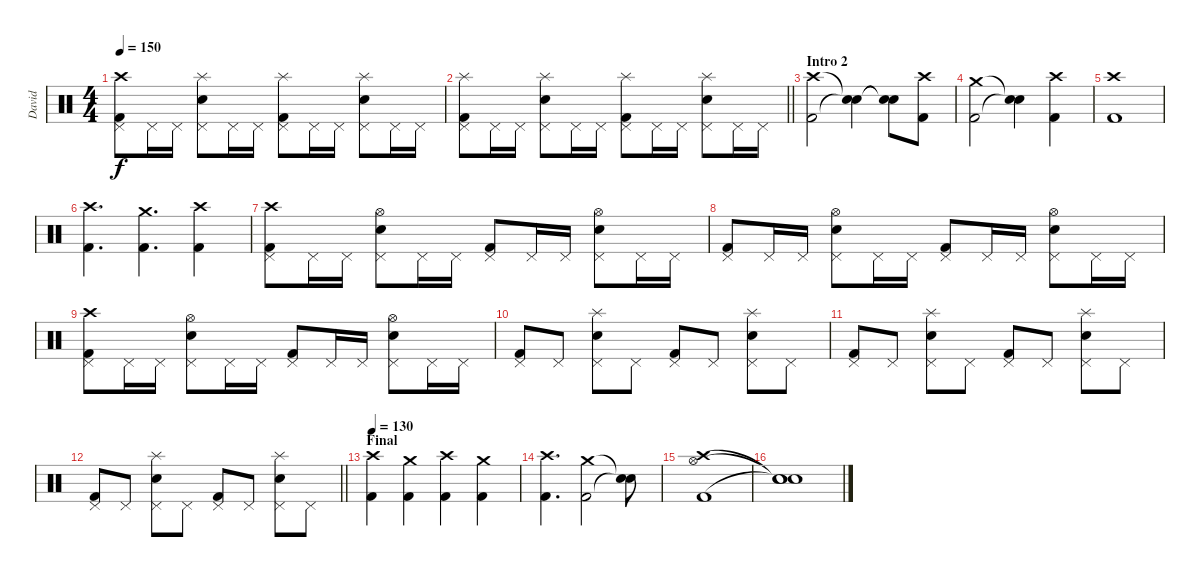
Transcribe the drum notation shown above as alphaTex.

\track ("David" "David") {instrument percussion}
\staff {score}
\articulation defaults
\ts (4 4)
\tempo 150
\clef neutral
\ks c
("Kick (hit) 2" "Pedal Hi-Hat (hit)" "Crash high (hit)").8{dy f} "Pedal Hi-Hat (hit)".16 "Pedal Hi-Hat (hit)".16 ("Snare (hit) 2" "Pedal Hi-Hat (hit)" "Splash (hit)").8 "Pedal Hi-Hat (hit)".16 "Pedal Hi-Hat (hit)".16 ("Kick (hit) 2" "Pedal Hi-Hat (hit)" "Splash (hit)").8 "Pedal Hi-Hat (hit)".16 "Pedal Hi-Hat (hit)".16 ("Snare (hit) 2" "Pedal Hi-Hat (hit)" "Splash (hit)").8 "Pedal Hi-Hat (hit)".16 "Pedal Hi-Hat (hit)".16 |
\barLineRight lightlight
("Kick (hit) 2" "Pedal Hi-Hat (hit)" "Splash (hit)").8 "Pedal Hi-Hat (hit)".16 "Pedal Hi-Hat (hit)".16 ("Snare (hit) 2" "Pedal Hi-Hat (hit)" "Splash (hit)").8 "Pedal Hi-Hat (hit)".16 "Pedal Hi-Hat (hit)".16 ("Kick (hit) 2" "Pedal Hi-Hat (hit)" "Splash (hit)").8 "Pedal Hi-Hat (hit)".16 "Pedal Hi-Hat (hit)".16 ("Snare (hit) 2" "Pedal Hi-Hat (hit)" "Splash (hit)").8 "Pedal Hi-Hat (hit)".16 "Pedal Hi-Hat (hit)".16 |
\section ("" "Intro 2")
("Kick (hit) 2" "Crash high (hit)").2 ("Snare (hit)"{t} "Snare (hit)"{t}).4 ("Snare (hit)"{t} "Snare (hit)"{t}).8 ("Kick (hit) 2" "Crash high (hit)").8 |
("Kick (hit) 2" "Crash medium (hit)").2 ("Snare (hit)"{t} "Snare (hit)"{t}).4 ("Kick (hit) 2" "Crash high (hit)").4 |
("Kick (hit) 2" "Crash high (hit)").1 |
("Kick (hit) 2" "Crash high (hit)").4{d} ("Kick (hit) 2" "Crash medium (hit)").4{d} ("Kick (hit) 2" "Crash high (hit)").4 |
("Kick (hit) 2" "Pedal Hi-Hat (hit)" "Crash high (hit)").8 "Pedal Hi-Hat (hit)".16 "Pedal Hi-Hat (hit)".16 ("Snare (hit) 2" "Pedal Hi-Hat (hit)" "Hi-Hat (open)").8 "Pedal Hi-Hat (hit)".16 "Pedal Hi-Hat (hit)".16 ("Kick (hit) 2" "Pedal Hi-Hat (hit)").8 "Pedal Hi-Hat (hit)".16 "Pedal Hi-Hat (hit)".16 ("Snare (hit) 2" "Pedal Hi-Hat (hit)" "Hi-Hat (open)").8 "Pedal Hi-Hat (hit)".16 "Pedal Hi-Hat (hit)".16 |
("Kick (hit) 2" "Pedal Hi-Hat (hit)").8 "Pedal Hi-Hat (hit)".16 "Pedal Hi-Hat (hit)".16 ("Snare (hit) 2" "Pedal Hi-Hat (hit)" "Hi-Hat (open)").8 "Pedal Hi-Hat (hit)".16 "Pedal Hi-Hat (hit)".16 ("Kick (hit) 2" "Pedal Hi-Hat (hit)").8 "Pedal Hi-Hat (hit)".16 "Pedal Hi-Hat (hit)".16 ("Snare (hit) 2" "Pedal Hi-Hat (hit)" "Hi-Hat (open)").8 "Pedal Hi-Hat (hit)".16 "Pedal Hi-Hat (hit)".16 |
("Kick (hit) 2" "Pedal Hi-Hat (hit)" "Crash high (hit)").8 "Pedal Hi-Hat (hit)".16 "Pedal Hi-Hat (hit)".16 ("Snare (hit) 2" "Pedal Hi-Hat (hit)" "Hi-Hat (open)").8 "Pedal Hi-Hat (hit)".16 "Pedal Hi-Hat (hit)".16 ("Kick (hit) 2" "Pedal Hi-Hat (hit)").8 "Pedal Hi-Hat (hit)".16 "Pedal Hi-Hat (hit)".16 ("Snare (hit) 2" "Pedal Hi-Hat (hit)" "Hi-Hat (open)").8 "Pedal Hi-Hat (hit)".16 "Pedal Hi-Hat (hit)".16 |
("Kick (hit) 2" "Pedal Hi-Hat (hit)").8 "Pedal Hi-Hat (hit)".8 ("Snare (hit) 2" "Pedal Hi-Hat (hit)" "Splash (hit)").8 "Pedal Hi-Hat (hit)".8 ("Kick (hit) 2" "Pedal Hi-Hat (hit)").8 "Pedal Hi-Hat (hit)".8 ("Snare (hit) 2" "Pedal Hi-Hat (hit)" "Splash (hit)").8 "Pedal Hi-Hat (hit)".8 |
("Kick (hit) 2" "Pedal Hi-Hat (hit)").8 "Pedal Hi-Hat (hit)".8 ("Snare (hit) 2" "Pedal Hi-Hat (hit)" "Splash (hit)").8 "Pedal Hi-Hat (hit)".8 ("Kick (hit) 2" "Pedal Hi-Hat (hit)").8 "Pedal Hi-Hat (hit)".8 ("Snare (hit) 2" "Pedal Hi-Hat (hit)" "Splash (hit)").8 "Pedal Hi-Hat (hit)".8 |
\barLineRight lightlight
("Kick (hit) 2" "Pedal Hi-Hat (hit)").8 "Pedal Hi-Hat (hit)".8 ("Snare (hit) 2" "Pedal Hi-Hat (hit)" "Splash (hit)").8 "Pedal Hi-Hat (hit)".8 ("Kick (hit) 2" "Pedal Hi-Hat (hit)").8 "Pedal Hi-Hat (hit)".8 ("Snare (hit) 2" "Pedal Hi-Hat (hit)" "Splash (hit)").8 "Pedal Hi-Hat (hit)".8 |
\section ("" "Final")
\tempo 130
("Kick (hit) 2" "Crash high (hit)").4 ("Kick (hit) 2" "Crash medium (hit)").4 ("Kick (hit) 2" "Crash high (hit)").4 ("Kick (hit) 2" "Crash medium (hit)").4 |
("Kick (hit) 2" "Crash high (hit)").4{d} ("Kick (hit) 2" "Crash medium (hit)").2 ("Snare (hit)"{t} "Snare (hit)"{t}).8 |
("Kick (hit) 2" "Hi-Hat (open)" "Crash high (hit)").1 |
("Snare (hit)"{t} "Snare (hit)"{t} "Snare (hit)"{t}).1
